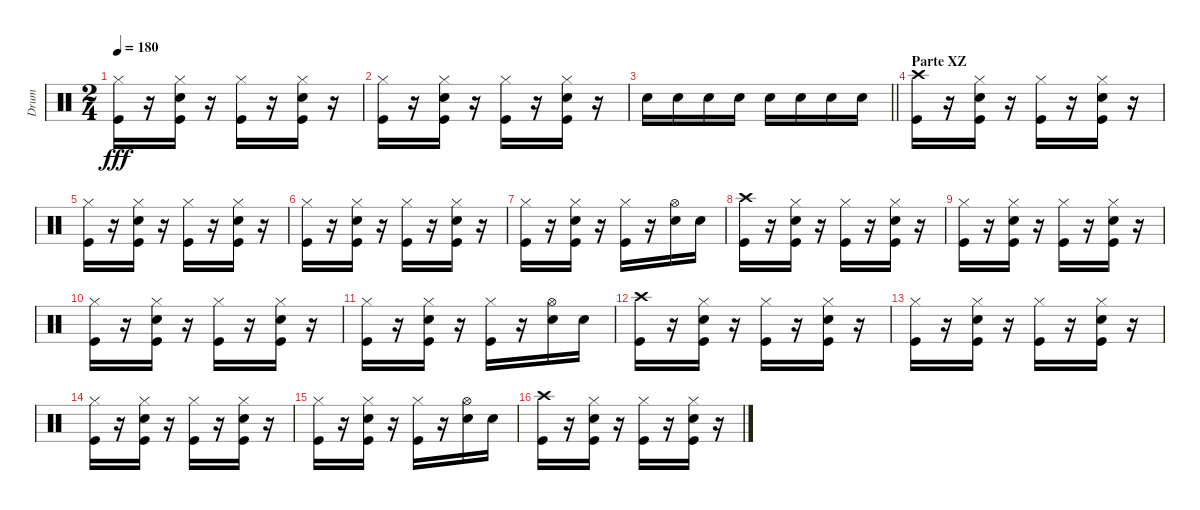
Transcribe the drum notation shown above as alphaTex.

\track ("Drum" "Drum") {instrument percussion}
\staff {score}
\articulation defaults
\ts (2 4)
\tempo 180
\clef neutral
\ks c
("Hi-Hat (closed)" "Kick (hit)").16{dy fff} r.16 ("Hi-Hat (closed)" "Snare (hit) 2" "Kick (hit)").16 r.16 ("Hi-Hat (closed)" "Kick (hit)").16 r.16 ("Hi-Hat (closed)" "Snare (hit) 2" "Kick (hit)").16 r.16 |
("Hi-Hat (closed)" "Kick (hit)").16 r.16 ("Hi-Hat (closed)" "Snare (hit) 2" "Kick (hit)").16 r.16 ("Hi-Hat (closed)" "Kick (hit)").16 r.16 ("Hi-Hat (closed)" "Snare (hit) 2" "Kick (hit)").16 r.16 |
\barLineRight lightlight "Snare (hit) 2".16 "Snare (hit) 2".16 "Snare (hit) 2".16 "Snare (hit) 2".16 "Snare (hit) 2".16 "Snare (hit) 2".16 "Snare (hit) 2".16 "Snare (hit) 2".16
|
\section ("" "Parte XZ")
("Crash high (hit)" "Kick (hit)").16 r.16 ("Hi-Hat (closed)" "Snare (hit) 2" "Kick (hit)").16 r.16 ("Hi-Hat (closed)" "Kick (hit)").16 r.16 ("Hi-Hat (closed)" "Snare (hit) 2" "Kick (hit)").16 r.16 |
("Hi-Hat (closed)" "Kick (hit)").16 r.16 ("Hi-Hat (closed)" "Snare (hit) 2" "Kick (hit)").16 r.16 ("Hi-Hat (closed)" "Kick (hit)").16 r.16 ("Hi-Hat (closed)" "Snare (hit) 2" "Kick (hit)").16 r.16 |
("Hi-Hat (closed)" "Kick (hit)").16 r.16 ("Hi-Hat (closed)" "Snare (hit) 2" "Kick (hit)").16 r.16 ("Hi-Hat (closed)" "Kick (hit)").16 r.16 ("Hi-Hat (closed)" "Snare (hit) 2" "Kick (hit)").16 r.16 |
("Hi-Hat (closed)" "Kick (hit)").16 r.16 ("Hi-Hat (closed)" "Snare (hit) 2" "Kick (hit)").16 r.16 ("Hi-Hat (closed)" "Kick (hit)").16 r.16 ("Hi-Hat (open)" "Snare (hit) 2").16 "Snare (hit) 2".16 |
("Crash high (hit)" "Kick (hit)").16 r.16 ("Hi-Hat (closed)" "Snare (hit) 2" "Kick (hit)").16 r.16 ("Hi-Hat (closed)" "Kick (hit)").16 r.16 ("Hi-Hat (closed)" "Snare (hit) 2" "Kick (hit)").16 r.16 |
("Hi-Hat (closed)" "Kick (hit)").16 r.16 ("Hi-Hat (closed)" "Snare (hit) 2" "Kick (hit)").16 r.16 ("Hi-Hat (closed)" "Kick (hit)").16 r.16 ("Hi-Hat (closed)" "Snare (hit) 2" "Kick (hit)").16 r.16 |
("Hi-Hat (closed)" "Kick (hit)").16 r.16 ("Hi-Hat (closed)" "Snare (hit) 2" "Kick (hit)").16 r.16 ("Hi-Hat (closed)" "Kick (hit)").16 r.16 ("Hi-Hat (closed)" "Snare (hit) 2" "Kick (hit)").16 r.16 |
("Hi-Hat (closed)" "Kick (hit)").16 r.16 ("Hi-Hat (closed)" "Snare (hit) 2" "Kick (hit)").16 r.16 ("Hi-Hat (closed)" "Kick (hit)").16 r.16 ("Hi-Hat (open)" "Snare (hit) 2").16 "Snare (hit) 2".16 |
("Crash high (hit)" "Kick (hit)").16 r.16 ("Hi-Hat (closed)" "Snare (hit) 2" "Kick (hit)").16 r.16 ("Hi-Hat (closed)" "Kick (hit)").16 r.16 ("Hi-Hat (closed)" "Snare (hit) 2" "Kick (hit)").16 r.16 |
("Hi-Hat (closed)" "Kick (hit)").16 r.16 ("Hi-Hat (closed)" "Snare (hit) 2" "Kick (hit)").16 r.16 ("Hi-Hat (closed)" "Kick (hit)").16 r.16 ("Hi-Hat (closed)" "Snare (hit) 2" "Kick (hit)").16 r.16 |
("Hi-Hat (closed)" "Kick (hit)").16 r.16 ("Hi-Hat (closed)" "Snare (hit) 2" "Kick (hit)").16 r.16 ("Hi-Hat (closed)" "Kick (hit)").16 r.16 ("Hi-Hat (closed)" "Snare (hit) 2" "Kick (hit)").16 r.16 |
("Hi-Hat (closed)" "Kick (hit)").16 r.16 ("Hi-Hat (closed)" "Snare (hit) 2" "Kick (hit)").16 r.16 ("Hi-Hat (closed)" "Kick (hit)").16 r.16 ("Hi-Hat (open)" "Snare (hit) 2").16 "Snare (hit) 2".16 |
("Crash high (hit)" "Kick (hit)").16 r.16 ("Hi-Hat (closed)" "Snare (hit) 2" "Kick (hit)").16 r.16 ("Hi-Hat (closed)" "Kick (hit)").16 r.16 ("Hi-Hat (closed)" "Snare (hit) 2" "Kick (hit)").16 r.16
